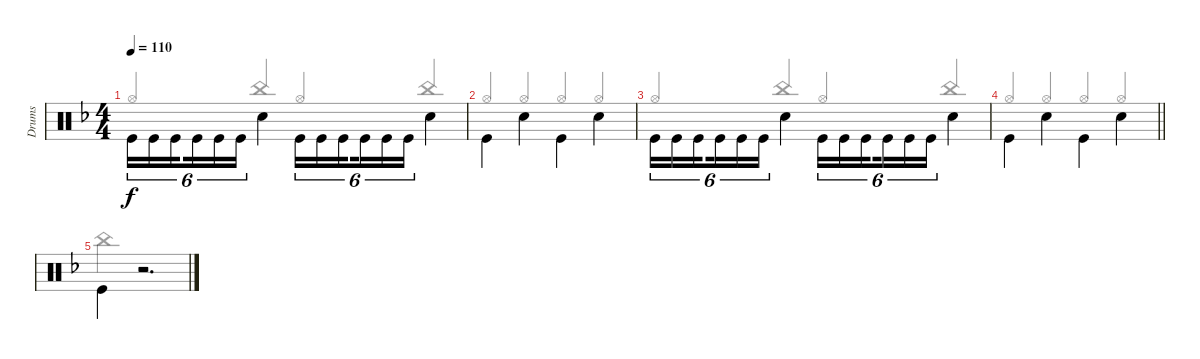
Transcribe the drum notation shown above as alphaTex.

\track ("Drums" "Drums") {instrument percussion}
\staff {score}
\articulation defaults
\voice
\ts (4 4)
\tempo 110
\clef neutral
\ks f "Kick (hit)".16{tu (6 4) dy f beam Down} "Kick (hit)".16{tu (6 4) beam Down} "Kick (hit)".16{tu (6 4) beam Down beam splitsecondary} "Kick (hit)".16{tu (6 4) beam Down} "Kick (hit)".16{tu (6 4) beam Down} "Kick (hit)".16{tu (6 4) beam Down} "Snare (hit) 2".4{beam Down} "Kick (hit)".16{tu (6 4) beam Down} "Kick (hit)".16{tu (6 4) beam Down} "Kick (hit)".16{tu (6 4) beam Down beam splitsecondary} "Kick (hit)".16{tu (6 4) beam Down} "Kick (hit)".16{tu (6 4) beam Down} "Kick (hit)".16{tu (6 4) beam Down} "Snare (hit) 2".4{beam Down}
|
"Kick (hit)".4{beam Down} "Snare (hit) 2".4{beam Down} "Kick (hit)".4{beam Down} "Snare (hit) 2".4{beam Down} |
"Kick (hit)".16{tu (6 4) beam Down} "Kick (hit)".16{tu (6 4) beam Down} "Kick (hit)".16{tu (6 4) beam Down beam splitsecondary} "Kick (hit)".16{tu (6 4) beam Down} "Kick (hit)".16{tu (6 4) beam Down} "Kick (hit)".16{tu (6 4) beam Down} "Snare (hit) 2".4{beam Down} "Kick (hit)".16{tu (6 4) beam Down} "Kick (hit)".16{tu (6 4) beam Down} "Kick (hit)".16{tu (6 4) beam Down beam splitsecondary} "Kick (hit)".16{tu (6 4) beam Down} "Kick (hit)".16{tu (6 4) beam Down} "Kick (hit)".16{tu (6 4) beam Down} "Snare (hit) 2".4{beam Down} |
\barLineRight lightlight "Kick (hit)".4{beam Down} "Snare (hit) 2".4{beam Down} "Kick (hit)".4{beam Down} "Snare (hit) 2".4{beam Down}
|
"Kick (hit)".4{beam Down} r.2{d}
\voice
\clef neutral
\ottava regular
\simile none
\ks f "Hi-Hat (open)".4{dy f beam Up} "China (hit)".4{beam Up} "Hi-Hat (open)".4{beam Up} "China (hit)".4{beam Up}
|
"Hi-Hat (open)".4{beam Up} "Hi-Hat (open)".4{beam Up} "Hi-Hat (open)".4{beam Up} "Hi-Hat (open)".4{beam Up} |
"Hi-Hat (open)".4{beam Up} "China (hit)".4{beam Up} "Hi-Hat (open)".4{beam Up} "China (hit)".4{beam Up} |
\barLineRight lightlight "Hi-Hat (open)".4{beam Up} "Hi-Hat (open)".4{beam Up} "Hi-Hat (open)".4{beam Up} "Hi-Hat (open)".4{beam Up}
|
"China (hit)".4 r.2{d}
